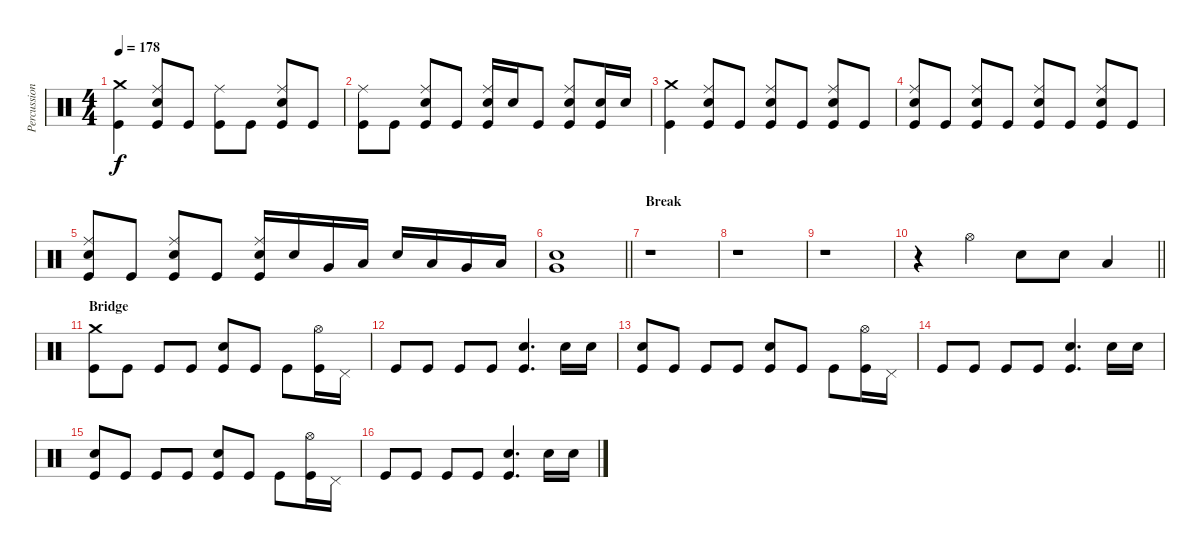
\track ("Percussion" "Percussion") {instrument percussion}
\staff {score}
\articulation defaults
\ts (4 4)
\tempo 178
\clef neutral
\ks c
("Crash medium (hit)" "Kick (hit)").4{dy f} ("Ride (middle)" "Electric Snare (hit)" "Kick (hit)").8 "Kick (hit)".8 ("Ride (middle)" "Kick (hit)").8 "Kick (hit)".8 ("Ride (middle)" "Electric Snare (hit)" "Kick (hit)").8 "Kick (hit)".8 |
("Ride (middle)" "Kick (hit)").8 "Kick (hit)".8 ("Ride (middle)" "Electric Snare (hit)" "Kick (hit)").8 "Kick (hit)".8 ("Ride (middle)" "Electric Snare (hit)" "Kick (hit)").16 "Electric Snare (hit)".16 "Kick (hit)".8 ("Ride (middle)" "Electric Snare (hit)" "Kick (hit)").8 ("Electric Snare (hit)" "Kick (hit)").16 "Electric Snare (hit)".16 |
("Crash medium (hit)" "Kick (hit)").4 ("Ride (middle)" "Electric Snare (hit)" "Kick (hit)").8 "Kick (hit)".8 ("Ride (middle)" "Electric Snare (hit)" "Kick (hit)").8 "Kick (hit)".8 ("Ride (middle)" "Electric Snare (hit)" "Kick (hit)").8 "Kick (hit)".8 |
("Ride (middle)" "Electric Snare (hit)" "Kick (hit)").8 "Kick (hit)".8 ("Ride (middle)" "Electric Snare (hit)" "Kick (hit)").8 "Kick (hit)".8 ("Ride (middle)" "Electric Snare (hit)" "Kick (hit)").8 "Kick (hit)".8 ("Ride (middle)" "Electric Snare (hit)" "Kick (hit)").8 "Kick (hit)".8 |
("Ride (middle)" "Electric Snare (hit)" "Kick (hit)").8 "Kick (hit)".8 ("Ride (middle)" "Electric Snare (hit)" "Kick (hit)").8 "Kick (hit)".8 ("Ride (middle)" "Electric Snare (hit)" "Kick (hit)").16 "Electric Snare (hit)".16 "Very Low Tom (hit)".16 "Low Floor Tom (hit)".16 "Electric Snare (hit)".16 "Low Tom (hit)".16 "Very Low Tom (hit)".16 "Low Floor Tom (hit)".16 |
\barLineRight lightlight
("Electric Snare (hit)" "Very Low Tom (hit)").1 |
\section ("" "Break")
r.1 |
r.1 |
r.1 |
\barLineRight lightlight
r.4 "Hi-Hat (open)".4 "Electric Snare (hit)".8 "Electric Snare (hit)".8 "Low Tom (hit)".4 |
\section ("" "Bridge")
("Crash medium (hit)" "Kick (hit)").8 "Kick (hit)".8 "Kick (hit)".8 "Kick (hit)".8 ("Electric Snare (hit)" "Kick (hit)").8 "Kick (hit)".8 "Kick (hit)".8 ("Hi-Hat (open)" "Kick (hit)").16 "Pedal Hi-Hat (hit)".16 |
"Kick (hit)".8 "Kick (hit)".8 "Kick (hit)".8 "Kick (hit)".8 ("Electric Snare (hit)" "Kick (hit)").4{d} "Electric Snare (hit)".16 "Electric Snare (hit)".16 |
("Electric Snare (hit)" "Kick (hit)").8 "Kick (hit)".8 "Kick (hit)".8 "Kick (hit)".8 ("Electric Snare (hit)" "Kick (hit)").8 "Kick (hit)".8 "Kick (hit)".8 ("Hi-Hat (open)" "Kick (hit)").16 "Pedal Hi-Hat (hit)".16 |
"Kick (hit)".8 "Kick (hit)".8 "Kick (hit)".8 "Kick (hit)".8 ("Electric Snare (hit)" "Kick (hit)").4{d} "Electric Snare (hit)".16 "Electric Snare (hit)".16 |
("Electric Snare (hit)" "Kick (hit)").8 "Kick (hit)".8 "Kick (hit)".8 "Kick (hit)".8 ("Electric Snare (hit)" "Kick (hit)").8 "Kick (hit)".8 "Kick (hit)".8 ("Hi-Hat (open)" "Kick (hit)").16 "Pedal Hi-Hat (hit)".16 |
"Kick (hit)".8 "Kick (hit)".8 "Kick (hit)".8 "Kick (hit)".8 ("Electric Snare (hit)" "Kick (hit)").4{d} "Electric Snare (hit)".16 "Electric Snare (hit)".16
